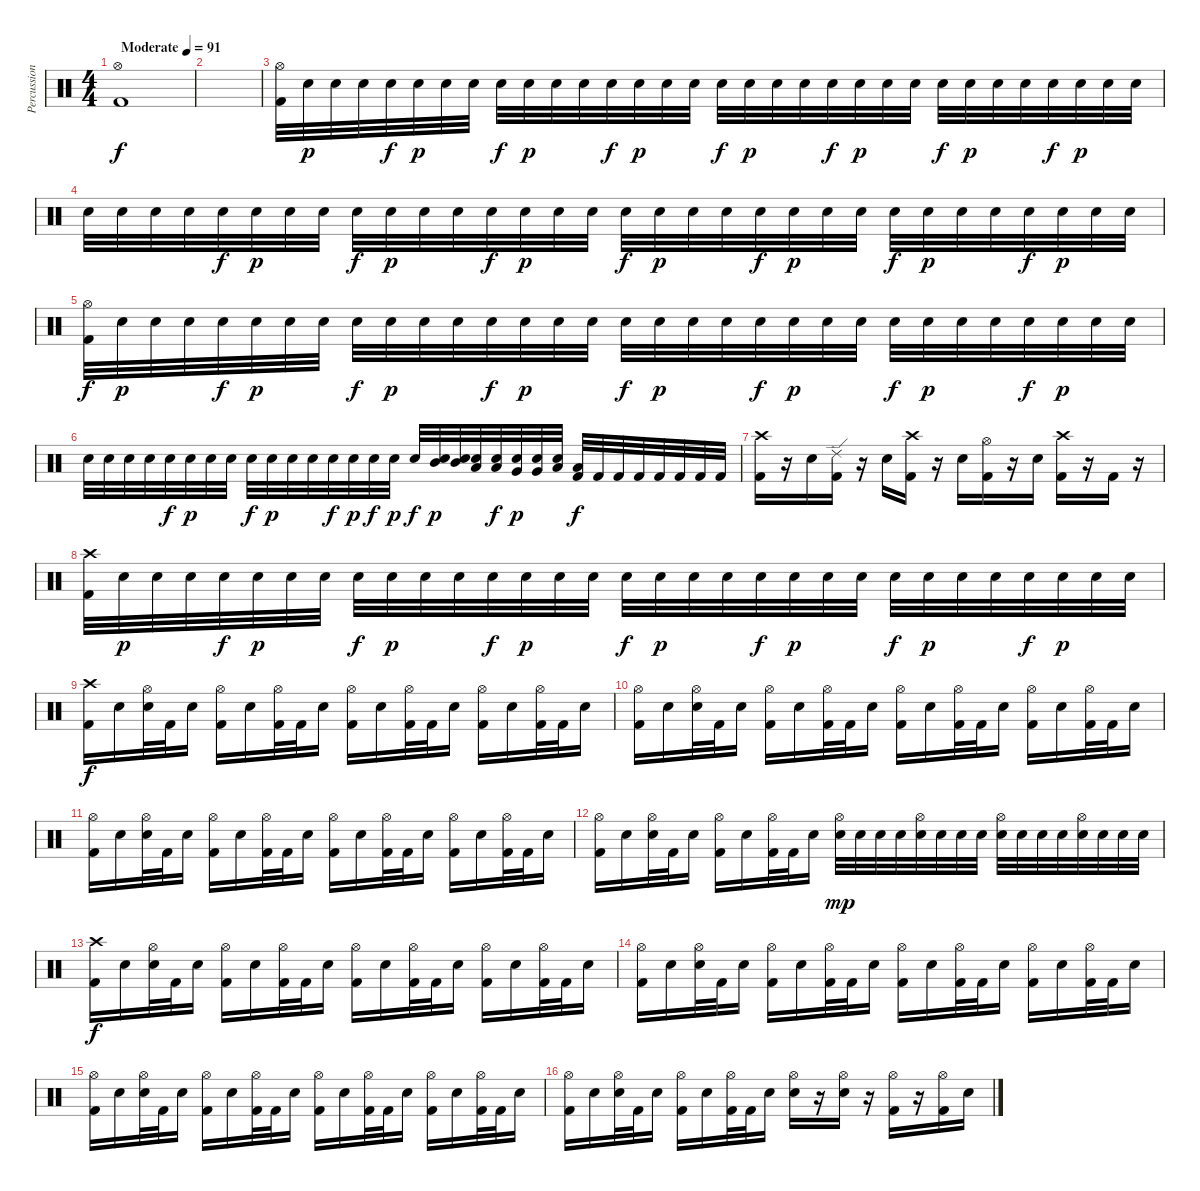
\track ("Percussion" "Percussion") {instrument percussion}
\staff {score}
\articulation defaults
\ts (4 4)
\tempo (91 "Moderate")
\clef neutral
\ks c
("Hi-Hat (open)" "Kick (hit) 2").1{dy f} |
|
("Hi-Hat (open)" "Kick (hit) 2").32 "Snare (hit) 2".32{dy p} "Snare (hit) 2".32 "Snare (hit) 2".32 "Snare (hit) 2".32{dy f} "Snare (hit) 2".32{dy p} "Snare (hit) 2".32 "Snare (hit) 2".32 "Snare (hit) 2".32{dy f} "Snare (hit) 2".32{dy p} "Snare (hit) 2".32 "Snare (hit) 2".32 "Snare (hit) 2".32{dy f} "Snare (hit) 2".32{dy p} "Snare (hit) 2".32 "Snare (hit) 2".32 "Snare (hit) 2".32{dy f} "Snare (hit) 2".32{dy p} "Snare (hit) 2".32 "Snare (hit) 2".32 "Snare (hit) 2".32{dy f} "Snare (hit) 2".32{dy p} "Snare (hit) 2".32 "Snare (hit) 2".32 "Snare (hit) 2".32{dy f} "Snare (hit) 2".32{dy p} "Snare (hit) 2".32 "Snare (hit) 2".32 "Snare (hit) 2".32{dy f} "Snare (hit) 2".32{dy p} "Snare (hit) 2".32 "Snare (hit) 2".32 |
"Snare (hit) 2".32 "Snare (hit) 2".32 "Snare (hit) 2".32 "Snare (hit) 2".32 "Snare (hit) 2".32{dy f} "Snare (hit) 2".32{dy p} "Snare (hit) 2".32 "Snare (hit) 2".32 "Snare (hit) 2".32{dy f} "Snare (hit) 2".32{dy p} "Snare (hit) 2".32 "Snare (hit) 2".32 "Snare (hit) 2".32{dy f} "Snare (hit) 2".32{dy p} "Snare (hit) 2".32 "Snare (hit) 2".32 "Snare (hit) 2".32{dy f} "Snare (hit) 2".32{dy p} "Snare (hit) 2".32 "Snare (hit) 2".32 "Snare (hit) 2".32{dy f} "Snare (hit) 2".32{dy p} "Snare (hit) 2".32 "Snare (hit) 2".32 "Snare (hit) 2".32{dy f} "Snare (hit) 2".32{dy p} "Snare (hit) 2".32 "Snare (hit) 2".32 "Snare (hit) 2".32{dy f} "Snare (hit) 2".32{dy p} "Snare (hit) 2".32 "Snare (hit) 2".32 |
("Hi-Hat (open)" "Kick (hit) 2").32{dy f} "Snare (hit) 2".32{dy p} "Snare (hit) 2".32 "Snare (hit) 2".32 "Snare (hit) 2".32{dy f} "Snare (hit) 2".32{dy p} "Snare (hit) 2".32 "Snare (hit) 2".32 "Snare (hit) 2".32{dy f} "Snare (hit) 2".32{dy p} "Snare (hit) 2".32 "Snare (hit) 2".32 "Snare (hit) 2".32{dy f} "Snare (hit) 2".32{dy p} "Snare (hit) 2".32 "Snare (hit) 2".32 "Snare (hit) 2".32{dy f} "Snare (hit) 2".32{dy p} "Snare (hit) 2".32 "Snare (hit) 2".32 "Snare (hit) 2".32{dy f} "Snare (hit) 2".32{dy p} "Snare (hit) 2".32 "Snare (hit) 2".32 "Snare (hit) 2".32{dy f} "Snare (hit) 2".32{dy p} "Snare (hit) 2".32 "Snare (hit) 2".32 "Snare (hit) 2".32{dy f} "Snare (hit) 2".32{dy p} "Snare (hit) 2".32 "Snare (hit) 2".32 |
"Snare (hit) 2".32 "Snare (hit) 2".32 "Snare (hit) 2".32 "Snare (hit) 2".32 "Snare (hit) 2".32{dy f} "Snare (hit) 2".32{dy p} "Snare (hit) 2".32 "Snare (hit) 2".32 "Snare (hit) 2".32{dy f} "Snare (hit) 2".32{dy p} "Snare (hit) 2".32 "Snare (hit) 2".32 "Snare (hit) 2".32{dy f} "Snare (hit) 2".32{dy p} "Snare (hit) 2".32{dy f} "Snare (hit) 2".32{dy p} "Snare (hit) 2".32{dy f} ("Snare (hit) 2" "Mid Tom (hit)").32{dy p} ("Snare (hit) 2" "Mid Tom (hit)").32 ("Snare (hit) 2" "Low Tom (hit)").32 ("Snare (hit) 2" "Low Tom (hit)").32{dy f} ("Snare (hit) 2" "Very Low Tom (hit)").32{dy p} ("Snare (hit) 2" "Very Low Tom (hit)").32 ("Snare (hit) 2" "Low Tom (hit)").32 ("Low Tom (hit)" "Kick (hit) 2").32{dy f} "Kick (hit) 2".32 "Kick (hit) 2".32 "Kick (hit) 2".32 "Kick (hit) 2".32 "Kick (hit) 2".32 "Kick (hit) 2".32 "Kick (hit) 2".32 |
("Crash high (hit)" "Kick (hit) 2").16 r.16 "Snare (hit) 2".16 ("Ride (edge) 2" "Kick (hit) 2").16 r.16 "Snare (hit) 2".16 ("Crash high (hit)" "Kick (hit) 2").16 r.16 "Snare (hit) 2".16 ("Hi-Hat (open)" "Kick (hit) 2").16 r.16 "Snare (hit) 2".16 ("Crash high (hit)" "Kick (hit) 2").16 r.16 "Kick (hit) 2".16 r.16 |
("Crash high (hit)" "Kick (hit) 2").32 "Snare (hit) 2".32{dy p} "Snare (hit) 2".32 "Snare (hit) 2".32 "Snare (hit) 2".32{dy f} "Snare (hit) 2".32{dy p} "Snare (hit) 2".32 "Snare (hit) 2".32 "Snare (hit) 2".32{dy f} "Snare (hit) 2".32{dy p} "Snare (hit) 2".32 "Snare (hit) 2".32 "Snare (hit) 2".32{dy f} "Snare (hit) 2".32{dy p} "Snare (hit) 2".32 "Snare (hit) 2".32 "Snare (hit) 2".32{dy f} "Snare (hit) 2".32{dy p} "Snare (hit) 2".32 "Snare (hit) 2".32 "Snare (hit) 2".32{dy f} "Snare (hit) 2".32{dy p} "Snare (hit) 2".32 "Snare (hit) 2".32 "Snare (hit) 2".32{dy f} "Snare (hit) 2".32{dy p} "Snare (hit) 2".32 "Snare (hit) 2".32 "Snare (hit) 2".32{dy f} "Snare (hit) 2".32{dy p} "Snare (hit) 2".32 "Snare (hit) 2".32 |
("Crash high (hit)" "Kick (hit) 2").16{dy f} "Snare (hit) 2".16 ("Hi-Hat (open)" "Snare (hit) 2").32 "Kick (hit) 2".32 "Snare (hit) 2".16 ("Hi-Hat (open)" "Kick (hit) 2").16 "Snare (hit) 2".16 ("Hi-Hat (open)" "Kick (hit) 2").32 "Kick (hit) 2".32 "Snare (hit) 2".16 ("Hi-Hat (open)" "Kick (hit) 2").16 "Snare (hit) 2".16 ("Hi-Hat (open)" "Kick (hit) 2").32 "Kick (hit) 2".32 "Snare (hit) 2".16 ("Hi-Hat (open)" "Kick (hit) 2").16 "Snare (hit) 2".16 ("Hi-Hat (open)" "Kick (hit) 2").32 "Kick (hit) 2".32 "Snare (hit) 2".16 |
("Hi-Hat (open)" "Kick (hit) 2").16 "Snare (hit) 2".16 ("Hi-Hat (open)" "Snare (hit) 2").32 "Kick (hit) 2".32 "Snare (hit) 2".16 ("Hi-Hat (open)" "Kick (hit) 2").16 "Snare (hit) 2".16 ("Hi-Hat (open)" "Kick (hit) 2").32 "Kick (hit) 2".32 "Snare (hit) 2".16 ("Hi-Hat (open)" "Kick (hit) 2").16 "Snare (hit) 2".16 ("Hi-Hat (open)" "Kick (hit) 2").32 "Kick (hit) 2".32 "Snare (hit) 2".16 ("Hi-Hat (open)" "Kick (hit) 2").16 "Snare (hit) 2".16 ("Hi-Hat (open)" "Kick (hit) 2").32 "Kick (hit) 2".32 "Snare (hit) 2".16 |
("Hi-Hat (open)" "Kick (hit) 2").16 "Snare (hit) 2".16 ("Hi-Hat (open)" "Snare (hit) 2").32 "Kick (hit) 2".32 "Snare (hit) 2".16 ("Hi-Hat (open)" "Kick (hit) 2").16 "Snare (hit) 2".16 ("Hi-Hat (open)" "Kick (hit) 2").32 "Kick (hit) 2".32 "Snare (hit) 2".16 ("Hi-Hat (open)" "Kick (hit) 2").16 "Snare (hit) 2".16 ("Hi-Hat (open)" "Kick (hit) 2").32 "Kick (hit) 2".32 "Snare (hit) 2".16 ("Hi-Hat (open)" "Kick (hit) 2").16 "Snare (hit) 2".16 ("Hi-Hat (open)" "Kick (hit) 2").32 "Kick (hit) 2".32 "Snare (hit) 2".16 |
("Hi-Hat (open)" "Kick (hit) 2").16 "Snare (hit) 2".16 ("Hi-Hat (open)" "Snare (hit) 2").32 "Kick (hit) 2".32 "Snare (hit) 2".16 ("Hi-Hat (open)" "Kick (hit) 2").16 "Snare (hit) 2".16 ("Hi-Hat (open)" "Kick (hit) 2").32 "Kick (hit) 2".32 "Snare (hit) 2".16 ("Hi-Hat (open)" "Snare (hit) 2").32{dy mp} "Snare (hit) 2".32 "Snare (hit) 2".32 "Snare (hit) 2".32 ("Hi-Hat (open)" "Snare (hit) 2").32 "Snare (hit) 2".32 "Snare (hit) 2".32 "Snare (hit) 2".32 ("Hi-Hat (open)" "Snare (hit) 2").32 "Snare (hit) 2".32 "Snare (hit) 2".32 "Snare (hit) 2".32 ("Hi-Hat (open)" "Snare (hit) 2").32 "Snare (hit) 2".32 "Snare (hit) 2".32 "Snare (hit) 2".32 |
("Crash high (hit)" "Kick (hit) 2").16{dy f} "Snare (hit) 2".16 ("Hi-Hat (open)" "Snare (hit) 2").32 "Kick (hit) 2".32 "Snare (hit) 2".16 ("Hi-Hat (open)" "Kick (hit) 2").16 "Snare (hit) 2".16 ("Hi-Hat (open)" "Kick (hit) 2").32 "Kick (hit) 2".32 "Snare (hit) 2".16 ("Hi-Hat (open)" "Kick (hit) 2").16 "Snare (hit) 2".16 ("Hi-Hat (open)" "Kick (hit) 2").32 "Kick (hit) 2".32 "Snare (hit) 2".16 ("Hi-Hat (open)" "Kick (hit) 2").16 "Snare (hit) 2".16 ("Hi-Hat (open)" "Kick (hit) 2").32 "Kick (hit) 2".32 "Snare (hit) 2".16 |
("Hi-Hat (open)" "Kick (hit) 2").16 "Snare (hit) 2".16 ("Hi-Hat (open)" "Snare (hit) 2").32 "Kick (hit) 2".32 "Snare (hit) 2".16 ("Hi-Hat (open)" "Kick (hit) 2").16 "Snare (hit) 2".16 ("Hi-Hat (open)" "Kick (hit) 2").32 "Kick (hit) 2".32 "Snare (hit) 2".16 ("Hi-Hat (open)" "Kick (hit) 2").16 "Snare (hit) 2".16 ("Hi-Hat (open)" "Kick (hit) 2").32 "Kick (hit) 2".32 "Snare (hit) 2".16 ("Hi-Hat (open)" "Kick (hit) 2").16 "Snare (hit) 2".16 ("Hi-Hat (open)" "Kick (hit) 2").32 "Kick (hit) 2".32 "Snare (hit) 2".16 |
("Hi-Hat (open)" "Kick (hit) 2").16 "Snare (hit) 2".16 ("Hi-Hat (open)" "Snare (hit) 2").32 "Kick (hit) 2".32 "Snare (hit) 2".16 ("Hi-Hat (open)" "Kick (hit) 2").16 "Snare (hit) 2".16 ("Hi-Hat (open)" "Kick (hit) 2").32 "Kick (hit) 2".32 "Snare (hit) 2".16 ("Hi-Hat (open)" "Kick (hit) 2").16 "Snare (hit) 2".16 ("Hi-Hat (open)" "Kick (hit) 2").32 "Kick (hit) 2".32 "Snare (hit) 2".16 ("Hi-Hat (open)" "Kick (hit) 2").16 "Snare (hit) 2".16 ("Hi-Hat (open)" "Kick (hit) 2").32 "Kick (hit) 2".32 "Snare (hit) 2".16 |
("Hi-Hat (open)" "Kick (hit) 2").16 "Snare (hit) 2".16 ("Hi-Hat (open)" "Snare (hit) 2").32 "Kick (hit) 2".32 "Snare (hit) 2".16 ("Hi-Hat (open)" "Kick (hit) 2").16 "Snare (hit) 2".16 ("Hi-Hat (open)" "Kick (hit) 2").32 "Kick (hit) 2".32 "Snare (hit) 2".16 ("Hi-Hat (open)" "Snare (hit) 2").16 r.16 ("Hi-Hat (open)" "Snare (hit) 2").16 r.16 ("Hi-Hat (open)" "Kick (hit) 2").16 r.16 ("Hi-Hat (open)" "Kick (hit) 2").16 "Snare (hit) 2".16
